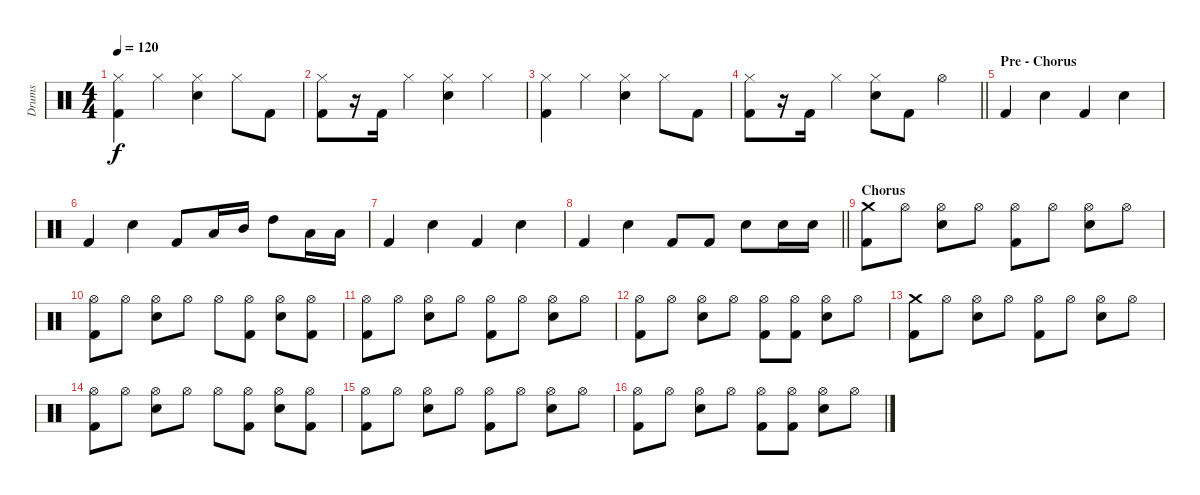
\track ("Drums" "Drums") {instrument percussion}
\staff {score}
\articulation defaults
\ts (4 4)
\tempo 120
\clef neutral
\ks c
("Hi-Hat (closed)" "Kick (hit) 2").4{dy f} "Hi-Hat (closed)".4 ("Hi-Hat (closed)" "Electric Snare (hit)").4 "Hi-Hat (closed)".8 "Kick (hit) 2".8 |
("Hi-Hat (closed)" "Kick (hit) 2").8 r.16 "Kick (hit) 2".16 "Hi-Hat (closed)".4 ("Hi-Hat (closed)" "Electric Snare (hit)").4 "Hi-Hat (closed)".4 |
("Hi-Hat (closed)" "Kick (hit) 2").4 "Hi-Hat (closed)".4 ("Hi-Hat (closed)" "Electric Snare (hit)").4 "Hi-Hat (closed)".8 "Kick (hit) 2".8 |
\barLineRight lightlight
("Hi-Hat (closed)" "Kick (hit) 2").8 r.16 "Kick (hit) 2".16 "Hi-Hat (closed)".4 ("Hi-Hat (closed)" "Electric Snare (hit)").8 "Kick (hit) 2".8 "Hi-Hat (open)".4 |
\section ("" "Pre - Chorus")
"Kick (hit) 2".4 "Electric Snare (hit)".4 "Kick (hit) 2".4 "Electric Snare (hit)".4 |
"Kick (hit) 2".4 "Electric Snare (hit)".4 "Kick (hit) 2".8 "Low Tom (hit)".16 "Mid Tom (hit)".16 "High Tom (hit)".8 "Low Tom (hit)".16 "Low Tom (hit)".16 |
"Kick (hit) 2".4 "Electric Snare (hit)".4 "Kick (hit) 2".4 "Electric Snare (hit)".4 |
\barLineRight lightlight "Kick (hit) 2".4 "Electric Snare (hit)".4 "Kick (hit) 2".8 "Kick (hit) 2".8 "Electric Snare (hit)".8 "Electric Snare (hit)".16 "Electric Snare (hit)".16
|
\section ("" "Chorus")
("Crash medium (hit)" "Kick (hit) 2").8 "Hi-Hat (open)".8 ("Hi-Hat (open)" "Electric Snare (hit)").8 "Hi-Hat (open)".8 ("Hi-Hat (open)" "Kick (hit) 2").8 "Hi-Hat (open)".8 ("Hi-Hat (open)" "Electric Snare (hit)").8 "Hi-Hat (open)".8 |
("Hi-Hat (open)" "Kick (hit) 2").8 "Hi-Hat (open)".8 ("Hi-Hat (open)" "Electric Snare (hit)").8 "Hi-Hat (open)".8 "Hi-Hat (open)".8 ("Hi-Hat (open)" "Kick (hit) 2").8 ("Hi-Hat (open)" "Electric Snare (hit)").8 ("Hi-Hat (open)" "Kick (hit) 2").8 |
("Hi-Hat (open)" "Kick (hit) 2").8 "Hi-Hat (open)".8 ("Hi-Hat (open)" "Electric Snare (hit)").8 "Hi-Hat (open)".8 ("Hi-Hat (open)" "Kick (hit) 2").8 "Hi-Hat (open)".8 ("Hi-Hat (open)" "Electric Snare (hit)").8 "Hi-Hat (open)".8 |
("Hi-Hat (open)" "Kick (hit) 2").8 "Hi-Hat (open)".8 ("Hi-Hat (open)" "Electric Snare (hit)").8 "Hi-Hat (open)".8 ("Hi-Hat (open)" "Kick (hit) 2").8 ("Hi-Hat (open)" "Kick (hit) 2").8 ("Hi-Hat (open)" "Electric Snare (hit)").8 "Hi-Hat (open)".8 |
("Crash medium (hit)" "Kick (hit) 2").8 "Hi-Hat (open)".8 ("Hi-Hat (open)" "Electric Snare (hit)").8 "Hi-Hat (open)".8 ("Hi-Hat (open)" "Kick (hit) 2").8 "Hi-Hat (open)".8 ("Hi-Hat (open)" "Electric Snare (hit)").8 "Hi-Hat (open)".8 |
("Hi-Hat (open)" "Kick (hit) 2").8 "Hi-Hat (open)".8 ("Hi-Hat (open)" "Electric Snare (hit)").8 "Hi-Hat (open)".8 "Hi-Hat (open)".8 ("Hi-Hat (open)" "Kick (hit) 2").8 ("Hi-Hat (open)" "Electric Snare (hit)").8 ("Hi-Hat (open)" "Kick (hit) 2").8 |
("Hi-Hat (open)" "Kick (hit) 2").8 "Hi-Hat (open)".8 ("Hi-Hat (open)" "Electric Snare (hit)").8 "Hi-Hat (open)".8 ("Hi-Hat (open)" "Kick (hit) 2").8 "Hi-Hat (open)".8 ("Hi-Hat (open)" "Electric Snare (hit)").8 "Hi-Hat (open)".8 |
("Hi-Hat (open)" "Kick (hit) 2").8 "Hi-Hat (open)".8 ("Hi-Hat (open)" "Electric Snare (hit)").8 "Hi-Hat (open)".8 ("Hi-Hat (open)" "Kick (hit) 2").8 ("Hi-Hat (open)" "Kick (hit) 2").8 ("Hi-Hat (open)" "Electric Snare (hit)").8 "Hi-Hat (open)".8
